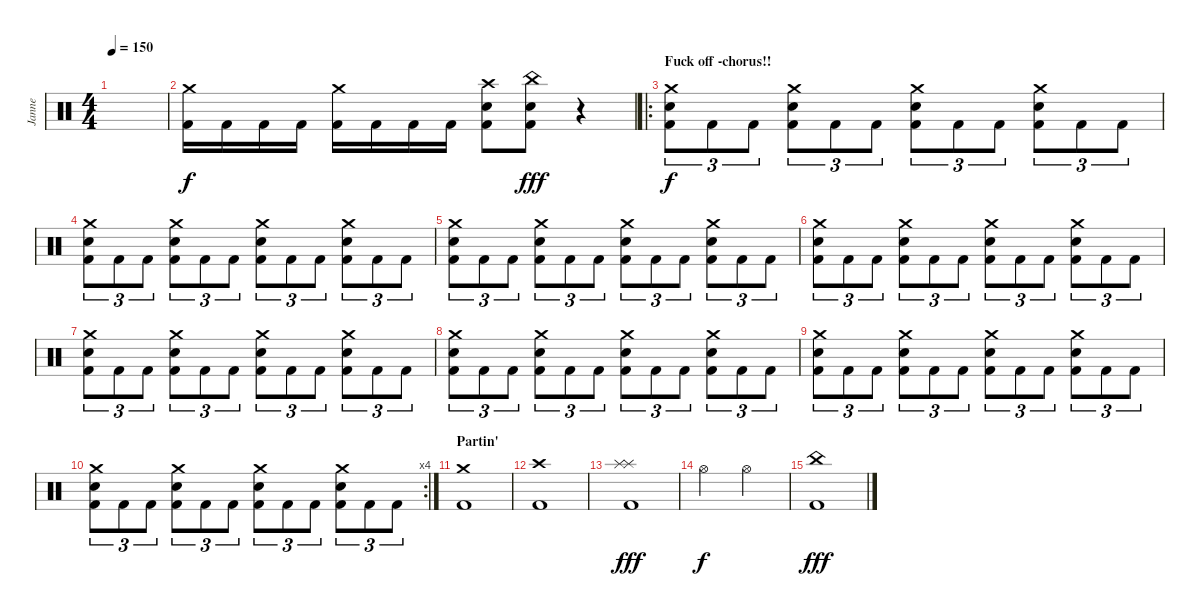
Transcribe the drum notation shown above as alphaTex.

\track ("Janne" "Janne") {instrument percussion}
\staff {score}
\articulation defaults
\ts (4 4)
\tempo 150
\clef neutral
\ks c
|
("Crash medium (hit)" "Kick (hit) 2").16 "Kick (hit) 2".16 "Kick (hit) 2".16 "Kick (hit) 2".16 ("Crash medium (hit)" "Kick (hit) 2").16 "Kick (hit) 2".16 "Kick (hit) 2".16 "Kick (hit) 2".16 ("Crash high (hit)" "Electric Snare (hit)" "Kick (hit) 2").8 ("China (hit)" "Electric Snare (hit)" "Kick (hit) 2").8{dy fff} r.4 |
\ro
\section ("" "Fuck off -chorus!!")
("Crash medium (hit)" "Electric Snare (hit)" "Kick (hit) 2").8{tu (3 2) dy f} "Kick (hit) 2".8{tu (3 2)} "Kick (hit) 2".8{tu (3 2)} ("Crash medium (hit)" "Electric Snare (hit)" "Kick (hit) 2").8{tu (3 2)} "Kick (hit) 2".8{tu (3 2)} "Kick (hit) 2".8{tu (3 2)} ("Crash medium (hit)" "Electric Snare (hit)" "Kick (hit) 2").8{tu (3 2)} "Kick (hit) 2".8{tu (3 2)} "Kick (hit) 2".8{tu (3 2)} ("Crash medium (hit)" "Electric Snare (hit)" "Kick (hit) 2").8{tu (3 2)} "Kick (hit) 2".8{tu (3 2)} "Kick (hit) 2".8{tu (3 2)} |
("Crash medium (hit)" "Electric Snare (hit)" "Kick (hit) 2").8{tu (3 2)} "Kick (hit) 2".8{tu (3 2)} "Kick (hit) 2".8{tu (3 2)} ("Crash medium (hit)" "Electric Snare (hit)" "Kick (hit) 2").8{tu (3 2)} "Kick (hit) 2".8{tu (3 2)} "Kick (hit) 2".8{tu (3 2)} ("Crash medium (hit)" "Electric Snare (hit)" "Kick (hit) 2").8{tu (3 2)} "Kick (hit) 2".8{tu (3 2)} "Kick (hit) 2".8{tu (3 2)} ("Crash medium (hit)" "Electric Snare (hit)" "Kick (hit) 2").8{tu (3 2)} "Kick (hit) 2".8{tu (3 2)} "Kick (hit) 2".8{tu (3 2)} |
("Crash medium (hit)" "Electric Snare (hit)" "Kick (hit) 2").8{tu (3 2)} "Kick (hit) 2".8{tu (3 2)} "Kick (hit) 2".8{tu (3 2)} ("Crash medium (hit)" "Electric Snare (hit)" "Kick (hit) 2").8{tu (3 2)} "Kick (hit) 2".8{tu (3 2)} "Kick (hit) 2".8{tu (3 2)} ("Crash medium (hit)" "Electric Snare (hit)" "Kick (hit) 2").8{tu (3 2)} "Kick (hit) 2".8{tu (3 2)} "Kick (hit) 2".8{tu (3 2)} ("Crash medium (hit)" "Electric Snare (hit)" "Kick (hit) 2").8{tu (3 2)} "Kick (hit) 2".8{tu (3 2)} "Kick (hit) 2".8{tu (3 2)} |
("Crash medium (hit)" "Electric Snare (hit)" "Kick (hit) 2").8{tu (3 2)} "Kick (hit) 2".8{tu (3 2)} "Kick (hit) 2".8{tu (3 2)} ("Crash medium (hit)" "Electric Snare (hit)" "Kick (hit) 2").8{tu (3 2)} "Kick (hit) 2".8{tu (3 2)} "Kick (hit) 2".8{tu (3 2)} ("Crash medium (hit)" "Electric Snare (hit)" "Kick (hit) 2").8{tu (3 2)} "Kick (hit) 2".8{tu (3 2)} "Kick (hit) 2".8{tu (3 2)} ("Crash medium (hit)" "Electric Snare (hit)" "Kick (hit) 2").8{tu (3 2)} "Kick (hit) 2".8{tu (3 2)} "Kick (hit) 2".8{tu (3 2)} |
("Crash medium (hit)" "Electric Snare (hit)" "Kick (hit) 2").8{tu (3 2)} "Kick (hit) 2".8{tu (3 2)} "Kick (hit) 2".8{tu (3 2)} ("Crash medium (hit)" "Electric Snare (hit)" "Kick (hit) 2").8{tu (3 2)} "Kick (hit) 2".8{tu (3 2)} "Kick (hit) 2".8{tu (3 2)} ("Crash medium (hit)" "Electric Snare (hit)" "Kick (hit) 2").8{tu (3 2)} "Kick (hit) 2".8{tu (3 2)} "Kick (hit) 2".8{tu (3 2)} ("Crash medium (hit)" "Electric Snare (hit)" "Kick (hit) 2").8{tu (3 2)} "Kick (hit) 2".8{tu (3 2)} "Kick (hit) 2".8{tu (3 2)} |
("Crash medium (hit)" "Electric Snare (hit)" "Kick (hit) 2").8{tu (3 2)} "Kick (hit) 2".8{tu (3 2)} "Kick (hit) 2".8{tu (3 2)} ("Crash medium (hit)" "Electric Snare (hit)" "Kick (hit) 2").8{tu (3 2)} "Kick (hit) 2".8{tu (3 2)} "Kick (hit) 2".8{tu (3 2)} ("Crash medium (hit)" "Electric Snare (hit)" "Kick (hit) 2").8{tu (3 2)} "Kick (hit) 2".8{tu (3 2)} "Kick (hit) 2".8{tu (3 2)} ("Crash medium (hit)" "Electric Snare (hit)" "Kick (hit) 2").8{tu (3 2)} "Kick (hit) 2".8{tu (3 2)} "Kick (hit) 2".8{tu (3 2)} |
("Crash medium (hit)" "Electric Snare (hit)" "Kick (hit) 2").8{tu (3 2)} "Kick (hit) 2".8{tu (3 2)} "Kick (hit) 2".8{tu (3 2)} ("Crash medium (hit)" "Electric Snare (hit)" "Kick (hit) 2").8{tu (3 2)} "Kick (hit) 2".8{tu (3 2)} "Kick (hit) 2".8{tu (3 2)} ("Crash medium (hit)" "Electric Snare (hit)" "Kick (hit) 2").8{tu (3 2)} "Kick (hit) 2".8{tu (3 2)} "Kick (hit) 2".8{tu (3 2)} ("Crash medium (hit)" "Electric Snare (hit)" "Kick (hit) 2").8{tu (3 2)} "Kick (hit) 2".8{tu (3 2)} "Kick (hit) 2".8{tu (3 2)} |
\rc 4
("Crash medium (hit)" "Electric Snare (hit)" "Kick (hit) 2").8{tu (3 2)} "Kick (hit) 2".8{tu (3 2)} "Kick (hit) 2".8{tu (3 2)} ("Crash medium (hit)" "Electric Snare (hit)" "Kick (hit) 2").8{tu (3 2)} "Kick (hit) 2".8{tu (3 2)} "Kick (hit) 2".8{tu (3 2)} ("Crash medium (hit)" "Electric Snare (hit)" "Kick (hit) 2").8{tu (3 2)} "Kick (hit) 2".8{tu (3 2)} "Kick (hit) 2".8{tu (3 2)} ("Crash medium (hit)" "Electric Snare (hit)" "Kick (hit) 2").8{tu (3 2)} "Kick (hit) 2".8{tu (3 2)} "Kick (hit) 2".8{tu (3 2)} |
\section ("" "Partin'")
("Crash medium (hit)" "Kick (hit) 2").1 |
("Crash high (hit)" "Kick (hit) 2").1 |
("Splash (hit)" "Splash (hit)" "Kick (hit) 2").1{dy fff} |
"Hi-Hat (open)".2{dy f} "Hi-Hat (open)".2 |
("China (hit)" "Kick (hit) 2").1{dy fff}
